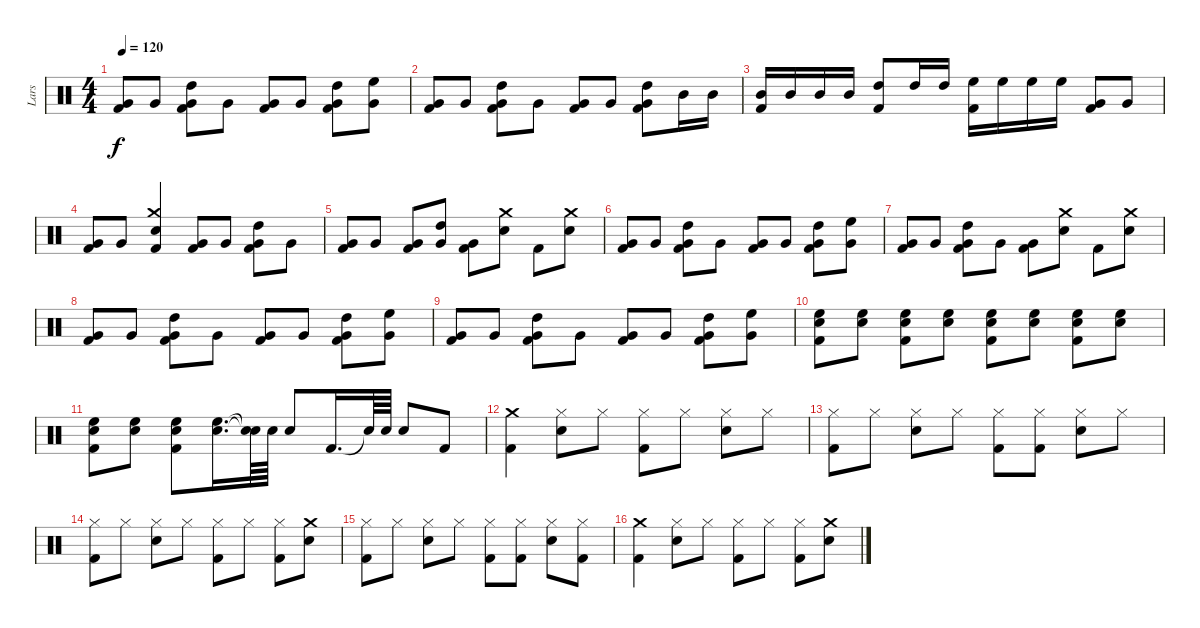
\track ("Lars" "Lars") {instrument percussion}
\staff {score}
\articulation defaults
\ts (4 4)
\tempo 120
\clef neutral
\ks c
("Very Low Tom (hit)" "Kick (hit) 2").8{dy f} "Very Low Tom (hit)".8 ("High Tom (hit)" "Very Low Tom (hit)" "Kick (hit) 2").8 "Very Low Tom (hit)".8 ("Very Low Tom (hit)" "Kick (hit) 2").8 "Very Low Tom (hit)".8 ("High Tom (hit)" "Very Low Tom (hit)" "Kick (hit) 2").8 ("High Floor Tom (hit)" "Very Low Tom (hit)").8 |
("Very Low Tom (hit)" "Kick (hit) 2").8 "Very Low Tom (hit)".8 ("High Tom (hit)" "Very Low Tom (hit)" "Kick (hit) 2").8 "Very Low Tom (hit)".8 ("Very Low Tom (hit)" "Kick (hit) 2").8 "Very Low Tom (hit)".8 ("High Tom (hit)" "Very Low Tom (hit)" "Kick (hit) 2").8 "Mid Tom (hit)".16 "Mid Tom (hit)".16 |
("Mid Tom (hit)" "Kick (hit) 2").16 "Mid Tom (hit)".16 "Mid Tom (hit)".16 "Mid Tom (hit)".16 ("High Tom (hit)" "Kick (hit) 2").8 "High Tom (hit)".16 "High Tom (hit)".16 ("High Floor Tom (hit)" "Kick (hit) 2").16 "High Floor Tom (hit)".16 "High Floor Tom (hit)".16 "High Floor Tom (hit)".16 ("Very Low Tom (hit)" "Kick (hit) 2").8 "Very Low Tom (hit)".8 |
("Very Low Tom (hit)" "Kick (hit) 2").8 "Very Low Tom (hit)".8 ("Crash medium (hit)" "Snare (hit) 2" "Kick (hit) 2").4 ("Very Low Tom (hit)" "Kick (hit) 2").8 "Very Low Tom (hit)".8 ("High Tom (hit)" "Very Low Tom (hit)" "Kick (hit) 2").8 "Very Low Tom (hit)".8 |
("Very Low Tom (hit)" "Kick (hit) 2").8 "Very Low Tom (hit)".8 ("Very Low Tom (hit)" "Kick (hit) 2").8 ("High Tom (hit)" "Very Low Tom (hit)").8 ("Very Low Tom (hit)" "Kick (hit) 2").8 ("Snare (hit) 2" "Crash medium (hit)").8 "Kick (hit) 2".8 ("Crash medium (hit)" "Snare (hit) 2").8 |
("Very Low Tom (hit)" "Kick (hit) 2").8 "Very Low Tom (hit)".8 ("High Tom (hit)" "Very Low Tom (hit)" "Kick (hit) 2").8 "Very Low Tom (hit)".8 ("Very Low Tom (hit)" "Kick (hit) 2").8 "Very Low Tom (hit)".8 ("High Tom (hit)" "Very Low Tom (hit)" "Kick (hit) 2").8 ("High Floor Tom (hit)" "Very Low Tom (hit)").8 |
("Very Low Tom (hit)" "Kick (hit) 2").8 "Very Low Tom (hit)".8 ("High Tom (hit)" "Very Low Tom (hit)" "Kick (hit) 2").8 "Very Low Tom (hit)".8 ("Very Low Tom (hit)" "Kick (hit) 2").8 ("Snare (hit) 2" "Crash medium (hit)").8 "Kick (hit) 2".8 ("Snare (hit) 2" "Crash medium (hit)").8 |
("Very Low Tom (hit)" "Kick (hit) 2").8 "Very Low Tom (hit)".8 ("High Tom (hit)" "Very Low Tom (hit)" "Kick (hit) 2").8 "Very Low Tom (hit)".8 ("Very Low Tom (hit)" "Kick (hit) 2").8 "Very Low Tom (hit)".8 ("High Tom (hit)" "Very Low Tom (hit)" "Kick (hit) 2").8 ("High Floor Tom (hit)" "Very Low Tom (hit)").8 |
("Very Low Tom (hit)" "Kick (hit) 2").8 "Very Low Tom (hit)".8 ("High Tom (hit)" "Very Low Tom (hit)" "Kick (hit) 2").8 "Very Low Tom (hit)".8 ("Very Low Tom (hit)" "Kick (hit) 2").8 "Very Low Tom (hit)".8 ("High Tom (hit)" "Very Low Tom (hit)" "Kick (hit) 2").8 ("High Floor Tom (hit)" "Very Low Tom (hit)").8 |
("High Floor Tom (hit)" "Snare (hit) 2" "Kick (hit) 2").8 ("High Floor Tom (hit)" "Snare (hit) 2").8 ("High Floor Tom (hit)" "Snare (hit) 2" "Kick (hit) 2").8 ("High Floor Tom (hit)" "Snare (hit) 2").8 ("High Floor Tom (hit)" "Snare (hit) 2" "Kick (hit) 2").8 ("High Floor Tom (hit)" "Snare (hit) 2").8 ("High Floor Tom (hit)" "Snare (hit) 2" "Kick (hit) 2").8 ("High Floor Tom (hit)" "Snare (hit) 2").8 |
("Snare (hit) 2" "High Floor Tom (hit)" "Kick (hit) 2").8 ("Snare (hit) 2" "High Floor Tom (hit)").8 ("Snare (hit) 2" "High Floor Tom (hit)" "Kick (hit) 2").8 ("Snare (hit) 2" "High Floor Tom (hit)").16{d} ("Snare (hit)"{t} "Snare (hit)"{t}).64 "Snare (hit) 2".64 "Snare (hit) 2".8 "Kick (hit) 2".16{d} "Snare (hit)"{t}.64 "Snare (hit) 2".64 "Snare (hit) 2".8 "Kick (hit) 2".8 |
("Kick (hit) 2" "Crash medium (hit)").4 ("Snare (hit) 2" "Hi-Hat (closed)").8 "Hi-Hat (closed)".8 ("Hi-Hat (closed)" "Kick (hit) 2").8 "Hi-Hat (closed)".8 ("Snare (hit) 2" "Hi-Hat (closed)").8 "Hi-Hat (closed)".8 |
("Hi-Hat (closed)" "Kick (hit) 2").8 "Hi-Hat (closed)".8 ("Snare (hit) 2" "Hi-Hat (closed)").8 "Hi-Hat (closed)".8 ("Kick (hit) 2" "Hi-Hat (closed)").8 ("Kick (hit) 2" "Hi-Hat (closed)").8 ("Snare (hit) 2" "Hi-Hat (closed)").8 "Hi-Hat (closed)".8 |
("Hi-Hat (closed)" "Kick (hit) 2").8 "Hi-Hat (closed)".8 ("Snare (hit) 2" "Hi-Hat (closed)").8 "Hi-Hat (closed)".8 ("Hi-Hat (closed)" "Kick (hit) 2").8 "Hi-Hat (closed)".8 ("Hi-Hat (closed)" "Kick (hit) 2").8 ("Crash medium (hit)" "Snare (hit) 2").8 |
("Hi-Hat (closed)" "Kick (hit) 2").8 "Hi-Hat (closed)".8 ("Snare (hit) 2" "Hi-Hat (closed)").8 "Hi-Hat (closed)".8 ("Kick (hit) 2" "Hi-Hat (closed)").8 ("Kick (hit) 2" "Hi-Hat (closed)").8 ("Snare (hit) 2" "Hi-Hat (closed)").8 ("Kick (hit) 2" "Hi-Hat (closed)").8 |
("Kick (hit) 2" "Crash medium (hit)").4 ("Hi-Hat (closed)" "Snare (hit) 2").8 "Hi-Hat (closed)".8 ("Kick (hit) 2" "Hi-Hat (closed)").8 "Hi-Hat (closed)".8 ("Kick (hit) 2" "Hi-Hat (closed)").8 ("Crash medium (hit)" "Snare (hit) 2").8
